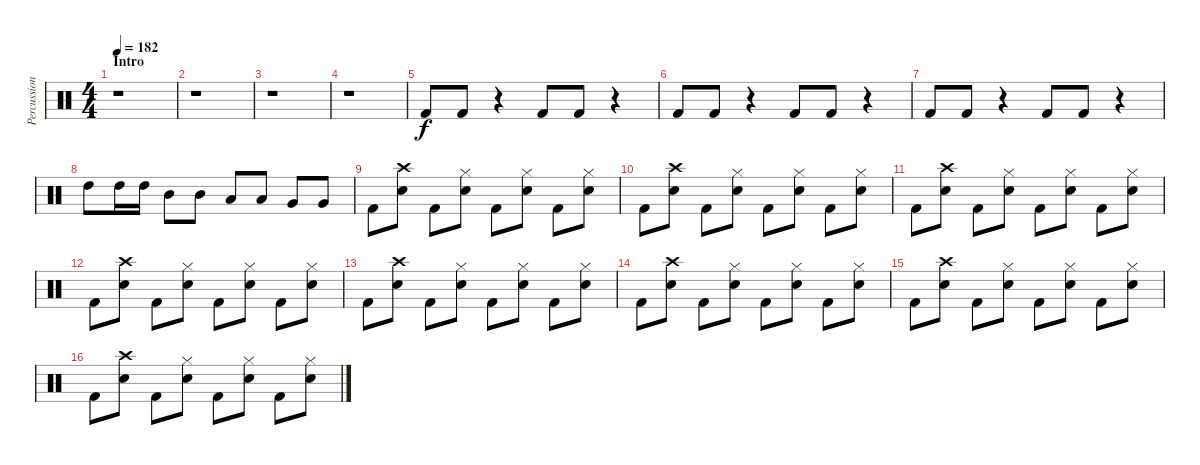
\track ("Percussion" "Percussion") {instrument percussion}
\staff {score}
\articulation defaults
\ts (4 4)
\section ("" "Intro")
\tempo 182
\clef neutral
\ks c
r.1{dy f} |
r.1 |
r.1 |
r.1 |
"Kick (hit) 2".8 "Kick (hit) 2".8 r.4 "Kick (hit) 2".8 "Kick (hit) 2".8 r.4 |
"Kick (hit) 2".8 "Kick (hit) 2".8 r.4 "Kick (hit) 2".8 "Kick (hit) 2".8 r.4 |
"Kick (hit) 2".8 "Kick (hit) 2".8 r.4 "Kick (hit) 2".8 "Kick (hit) 2".8 r.4 |
"High Tom (hit)".8 "High Tom (hit)".16 "High Tom (hit)".16 "Mid Tom (hit)".8 "Mid Tom (hit)".8 "Low Tom (hit)".8 "Low Tom (hit)".8 "Very Low Tom (hit)".8 "Very Low Tom (hit)".8 |
"Kick (hit) 2".8 ("Crash high (hit)" "Snare (hit) 2").8 "Kick (hit) 2".8 ("Hi-Hat (closed)" "Snare (hit) 2").8 "Kick (hit) 2".8 ("Hi-Hat (closed)" "Snare (hit) 2").8 "Kick (hit) 2".8 ("Hi-Hat (closed)" "Snare (hit) 2").8 |
"Kick (hit) 2".8 ("Crash high (hit)" "Snare (hit) 2").8 "Kick (hit) 2".8 ("Hi-Hat (closed)" "Snare (hit) 2").8 "Kick (hit) 2".8 ("Hi-Hat (closed)" "Snare (hit) 2").8 "Kick (hit) 2".8 ("Hi-Hat (closed)" "Snare (hit) 2").8 |
"Kick (hit) 2".8 ("Crash high (hit)" "Snare (hit) 2").8 "Kick (hit) 2".8 ("Hi-Hat (closed)" "Snare (hit) 2").8 "Kick (hit) 2".8 ("Hi-Hat (closed)" "Snare (hit) 2").8 "Kick (hit) 2".8 ("Hi-Hat (closed)" "Snare (hit) 2").8 |
"Kick (hit) 2".8 ("Crash high (hit)" "Snare (hit) 2").8 "Kick (hit) 2".8 ("Hi-Hat (closed)" "Snare (hit) 2").8 "Kick (hit) 2".8 ("Hi-Hat (closed)" "Snare (hit) 2").8 "Kick (hit) 2".8 ("Hi-Hat (closed)" "Snare (hit) 2").8 |
"Kick (hit) 2".8 ("Crash high (hit)" "Snare (hit) 2").8 "Kick (hit) 2".8 ("Hi-Hat (closed)" "Snare (hit) 2").8 "Kick (hit) 2".8 ("Hi-Hat (closed)" "Snare (hit) 2").8 "Kick (hit) 2".8 ("Hi-Hat (closed)" "Snare (hit) 2").8 |
"Kick (hit) 2".8 ("Crash high (hit)" "Snare (hit) 2").8 "Kick (hit) 2".8 ("Hi-Hat (closed)" "Snare (hit) 2").8 "Kick (hit) 2".8 ("Hi-Hat (closed)" "Snare (hit) 2").8 "Kick (hit) 2".8 ("Hi-Hat (closed)" "Snare (hit) 2").8 |
"Kick (hit) 2".8 ("Crash high (hit)" "Snare (hit) 2").8 "Kick (hit) 2".8 ("Hi-Hat (closed)" "Snare (hit) 2").8 "Kick (hit) 2".8 ("Hi-Hat (closed)" "Snare (hit) 2").8 "Kick (hit) 2".8 ("Hi-Hat (closed)" "Snare (hit) 2").8 |
"Kick (hit) 2".8 ("Crash high (hit)" "Snare (hit) 2").8 "Kick (hit) 2".8 ("Hi-Hat (closed)" "Snare (hit) 2").8 "Kick (hit) 2".8 ("Hi-Hat (closed)" "Snare (hit) 2").8 "Kick (hit) 2".8 ("Hi-Hat (closed)" "Snare (hit) 2").8
